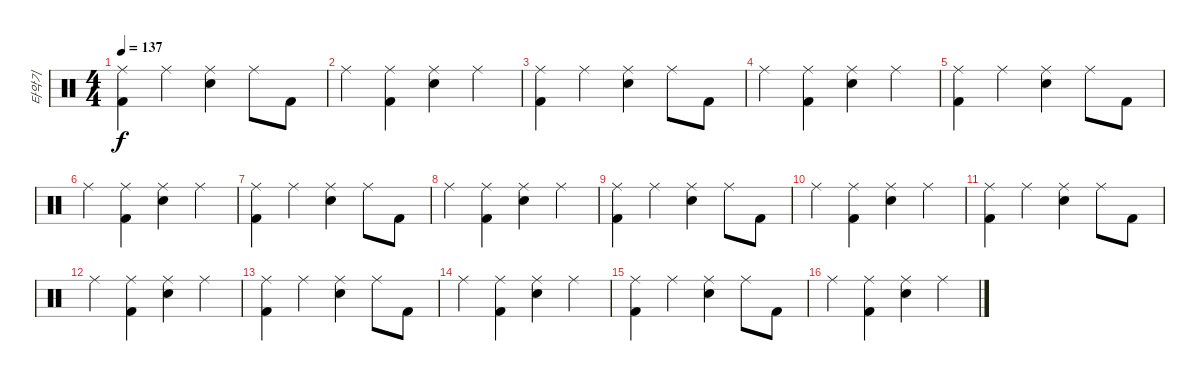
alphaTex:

\track ("타악기" "타악기") {instrument percussion}
\staff {score}
\articulation defaults
\ts (4 4)
\tempo 137
\clef neutral
\ks c
("Ride (middle)" "Kick (hit) 2").4{dy f} "Ride (middle)".4 ("Ride (middle)" "Electric Snare (hit)").4 "Ride (middle)".8 "Kick (hit) 2".8 |
"Ride (middle)".4 ("Ride (middle)" "Kick (hit) 2").4 ("Ride (middle)" "Electric Snare (hit)").4 "Ride (middle)".4 |
("Ride (middle)" "Kick (hit) 2").4 "Ride (middle)".4 ("Ride (middle)" "Electric Snare (hit)").4 "Ride (middle)".8 "Kick (hit) 2".8 |
"Ride (middle)".4 ("Ride (middle)" "Kick (hit) 2").4 ("Ride (middle)" "Electric Snare (hit)").4 "Ride (middle)".4 |
("Ride (middle)" "Kick (hit) 2").4 "Ride (middle)".4 ("Ride (middle)" "Electric Snare (hit)").4 "Ride (middle)".8 "Kick (hit) 2".8 |
"Ride (middle)".4 ("Ride (middle)" "Kick (hit) 2").4 ("Ride (middle)" "Electric Snare (hit)").4 "Ride (middle)".4 |
("Ride (middle)" "Kick (hit) 2").4 "Ride (middle)".4 ("Ride (middle)" "Electric Snare (hit)").4 "Ride (middle)".8 "Kick (hit) 2".8 |
"Ride (middle)".4 ("Ride (middle)" "Kick (hit) 2").4 ("Ride (middle)" "Electric Snare (hit)").4 "Ride (middle)".4 |
("Ride (middle)" "Kick (hit) 2").4 "Ride (middle)".4 ("Ride (middle)" "Electric Snare (hit)").4 "Ride (middle)".8 "Kick (hit) 2".8 |
"Ride (middle)".4 ("Ride (middle)" "Kick (hit) 2").4 ("Ride (middle)" "Electric Snare (hit)").4 "Ride (middle)".4 |
("Ride (middle)" "Kick (hit) 2").4 "Ride (middle)".4 ("Ride (middle)" "Electric Snare (hit)").4 "Ride (middle)".8 "Kick (hit) 2".8 |
"Ride (middle)".4 ("Ride (middle)" "Kick (hit) 2").4 ("Ride (middle)" "Electric Snare (hit)").4 "Ride (middle)".4 |
("Ride (middle)" "Kick (hit) 2").4 "Ride (middle)".4 ("Ride (middle)" "Electric Snare (hit)").4 "Ride (middle)".8 "Kick (hit) 2".8 |
"Ride (middle)".4 ("Ride (middle)" "Kick (hit) 2").4 ("Ride (middle)" "Electric Snare (hit)").4 "Ride (middle)".4 |
("Ride (middle)" "Kick (hit) 2").4 "Ride (middle)".4 ("Ride (middle)" "Electric Snare (hit)").4 "Ride (middle)".8 "Kick (hit) 2".8 |
"Ride (middle)".4 ("Ride (middle)" "Kick (hit) 2").4 ("Ride (middle)" "Electric Snare (hit)").4 "Ride (middle)".4
